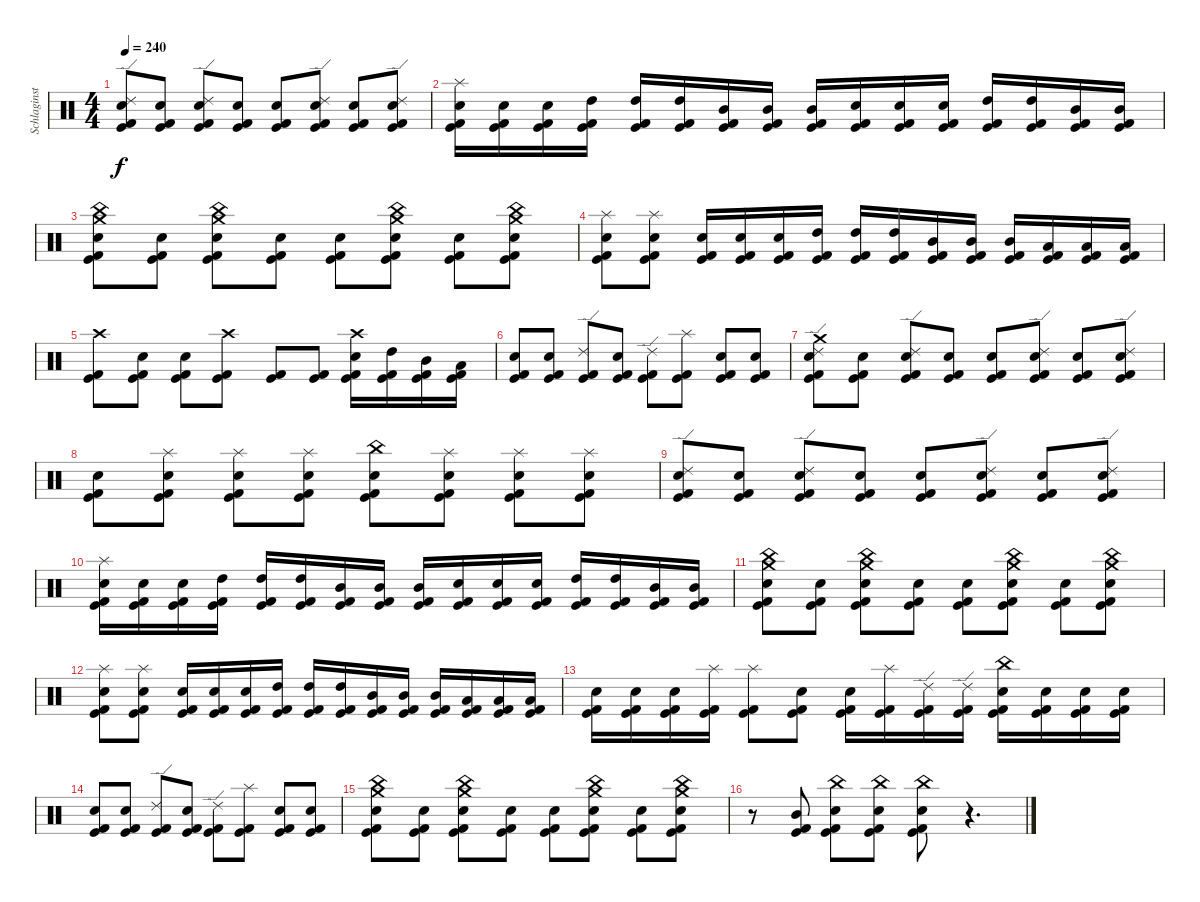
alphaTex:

\track ("Schlaginstrumente - Auswahl" "Schlaginst") {instrument percussion}
\staff {score}
\articulation defaults
\ts (4 4)
\tempo 240
\clef neutral
\ks c
("Ride (edge) 2" "Electric Snare (hit)" "Kick (hit)" "Kick (hit) 2").8{dy f} ("Electric Snare (hit)" "Kick (hit)" "Kick (hit) 2").8 ("Ride (edge) 2" "Electric Snare (hit)" "Kick (hit)" "Kick (hit) 2").8 ("Electric Snare (hit)" "Kick (hit)" "Kick (hit) 2").8 ("Electric Snare (hit)" "Kick (hit)" "Kick (hit) 2").8 ("Ride (edge) 2" "Electric Snare (hit)" "Kick (hit)" "Kick (hit) 2").8 ("Electric Snare (hit)" "Kick (hit)" "Kick (hit) 2").8 ("Ride (edge) 2" "Electric Snare (hit)" "Kick (hit)" "Kick (hit) 2").8 |
("Splash (hit)" "Electric Snare (hit)" "Kick (hit)" "Kick (hit) 2").16 ("Electric Snare (hit)" "Kick (hit)" "Kick (hit) 2").16 ("Electric Snare (hit)" "Kick (hit)" "Kick (hit) 2").16 ("High Tom (hit)" "Kick (hit)" "Kick (hit) 2").16 ("High Tom (hit)" "Kick (hit)" "Kick (hit) 2").16 ("High Tom (hit)" "Kick (hit)" "Kick (hit) 2").16 ("Mid Tom (hit)" "Kick (hit)" "Kick (hit) 2").16 ("Mid Tom (hit)" "Kick (hit)" "Kick (hit) 2").16 ("Mid Tom (hit)" "Kick (hit)" "Kick (hit) 2").16 ("Electric Snare (hit)" "Kick (hit)" "Kick (hit) 2").16 ("Electric Snare (hit)" "Kick (hit)" "Kick (hit) 2").16 ("Electric Snare (hit)" "Kick (hit)" "Kick (hit) 2").16 ("High Tom (hit)" "Kick (hit)" "Kick (hit) 2").16 ("High Tom (hit)" "Kick (hit)" "Kick (hit) 2").16 ("Mid Tom (hit)" "Kick (hit)" "Kick (hit) 2").16 ("Mid Tom (hit)" "Kick (hit)" "Kick (hit) 2").16 |
("Crash medium (hit)" "China (hit)" "Electric Snare (hit)" "Kick (hit)" "Kick (hit) 2").8 ("Electric Snare (hit)" "Kick (hit)" "Kick (hit) 2").8 ("Crash medium (hit)" "China (hit)" "Electric Snare (hit)" "Kick (hit)" "Kick (hit) 2").8 ("Electric Snare (hit)" "Kick (hit)" "Kick (hit) 2").8 ("Electric Snare (hit)" "Kick (hit)" "Kick (hit) 2").8 ("Crash medium (hit)" "China (hit)" "Electric Snare (hit)" "Kick (hit)" "Kick (hit) 2").8 ("Electric Snare (hit)" "Kick (hit)" "Kick (hit) 2").8 ("Crash medium (hit)" "China (hit)" "Electric Snare (hit)" "Kick (hit)" "Kick (hit) 2").8 |
("Splash (hit)" "Electric Snare (hit)" "Kick (hit)" "Kick (hit) 2").8 ("Splash (hit)" "Electric Snare (hit)" "Kick (hit)" "Kick (hit) 2").8 ("Electric Snare (hit)" "Kick (hit)" "Kick (hit) 2").16 ("Electric Snare (hit)" "Kick (hit)" "Kick (hit) 2").16 ("Electric Snare (hit)" "Kick (hit)" "Kick (hit) 2").16 ("High Tom (hit)" "Kick (hit)" "Kick (hit) 2").16 ("High Tom (hit)" "Kick (hit)" "Kick (hit) 2").16 ("High Tom (hit)" "Kick (hit)" "Kick (hit) 2").16 ("Mid Tom (hit)" "Kick (hit)" "Kick (hit) 2").16 ("Mid Tom (hit)" "Kick (hit)" "Kick (hit) 2").16 ("Mid Tom (hit)" "Kick (hit)" "Kick (hit) 2").16 ("Low Tom (hit)" "Kick (hit)" "Kick (hit) 2").16 ("Low Tom (hit)" "Kick (hit)" "Kick (hit) 2").16 ("Low Tom (hit)" "Kick (hit)" "Kick (hit) 2").16 |
("Crash high (hit)" "Kick (hit)" "Kick (hit) 2").8 ("Electric Snare (hit)" "Kick (hit)" "Kick (hit) 2").8 ("Electric Snare (hit)" "Kick (hit)" "Kick (hit) 2").8 ("Crash high (hit)" "Kick (hit)" "Kick (hit) 2").8 ("Kick (hit)" "Kick (hit) 2").8 ("Kick (hit)" "Kick (hit) 2").8 ("Crash high (hit)" "Electric Snare (hit)" "Kick (hit)" "Kick (hit) 2").16 ("High Tom (hit)" "Kick (hit)" "Kick (hit) 2").16 ("Mid Tom (hit)" "Kick (hit)" "Kick (hit) 2").16 ("Low Tom (hit)" "Kick (hit)" "Kick (hit) 2").16 |
("Electric Snare (hit)" "Kick (hit)" "Kick (hit) 2").8 ("Electric Snare (hit)" "Kick (hit)" "Kick (hit) 2").8 ("Ride (edge) 2" "Kick (hit)" "Kick (hit) 2").8 ("Electric Snare (hit)" "Kick (hit)" "Kick (hit) 2").8 ("Ride (edge) 2" "Kick (hit)" "Kick (hit) 2").8 ("Splash (hit)" "Kick (hit)" "Kick (hit) 2").8 ("Electric Snare (hit)" "Kick (hit)" "Kick (hit) 2").8 ("Electric Snare (hit)" "Kick (hit)" "Kick (hit) 2").8 |
("Crash medium (hit)" "Ride (edge) 2" "Electric Snare (hit)" "Kick (hit)" "Kick (hit) 2").8 ("Electric Snare (hit)" "Kick (hit)" "Kick (hit) 2").8 ("Ride (edge) 2" "Electric Snare (hit)" "Kick (hit)" "Kick (hit) 2").8 ("Electric Snare (hit)" "Kick (hit)" "Kick (hit) 2").8 ("Electric Snare (hit)" "Kick (hit)" "Kick (hit) 2").8 ("Ride (edge) 2" "Electric Snare (hit)" "Kick (hit)" "Kick (hit) 2").8 ("Electric Snare (hit)" "Kick (hit)" "Kick (hit) 2").8 ("Ride (edge) 2" "Electric Snare (hit)" "Kick (hit)" "Kick (hit) 2").8 |
("Electric Snare (hit)" "Kick (hit)" "Kick (hit) 2").8 ("Splash (hit)" "Electric Snare (hit)" "Kick (hit)" "Kick (hit) 2").8 ("Splash (hit)" "Electric Snare (hit)" "Kick (hit)" "Kick (hit) 2").8 ("Splash (hit)" "Electric Snare (hit)" "Kick (hit)" "Kick (hit) 2").8 ("China (hit)" "Electric Snare (hit)" "Kick (hit)" "Kick (hit) 2").8 ("Splash (hit)" "Electric Snare (hit)" "Kick (hit)" "Kick (hit) 2").8 ("Splash (hit)" "Electric Snare (hit)" "Kick (hit)" "Kick (hit) 2").8 ("Splash (hit)" "Electric Snare (hit)" "Kick (hit)" "Kick (hit) 2").8 |
("Ride (edge) 2" "Electric Snare (hit)" "Kick (hit)" "Kick (hit) 2").8 ("Electric Snare (hit)" "Kick (hit)" "Kick (hit) 2").8 ("Ride (edge) 2" "Electric Snare (hit)" "Kick (hit)" "Kick (hit) 2").8 ("Electric Snare (hit)" "Kick (hit)" "Kick (hit) 2").8 ("Electric Snare (hit)" "Kick (hit)" "Kick (hit) 2").8 ("Ride (edge) 2" "Electric Snare (hit)" "Kick (hit)" "Kick (hit) 2").8 ("Electric Snare (hit)" "Kick (hit)" "Kick (hit) 2").8 ("Ride (edge) 2" "Electric Snare (hit)" "Kick (hit)" "Kick (hit) 2").8 |
("Splash (hit)" "Electric Snare (hit)" "Kick (hit)" "Kick (hit) 2").16 ("Electric Snare (hit)" "Kick (hit)" "Kick (hit) 2").16 ("Electric Snare (hit)" "Kick (hit)" "Kick (hit) 2").16 ("High Tom (hit)" "Kick (hit)" "Kick (hit) 2").16 ("High Tom (hit)" "Kick (hit)" "Kick (hit) 2").16 ("High Tom (hit)" "Kick (hit)" "Kick (hit) 2").16 ("Mid Tom (hit)" "Kick (hit)" "Kick (hit) 2").16 ("Mid Tom (hit)" "Kick (hit)" "Kick (hit) 2").16 ("Mid Tom (hit)" "Kick (hit)" "Kick (hit) 2").16 ("Electric Snare (hit)" "Kick (hit)" "Kick (hit) 2").16 ("Electric Snare (hit)" "Kick (hit)" "Kick (hit) 2").16 ("Electric Snare (hit)" "Kick (hit)" "Kick (hit) 2").16 ("High Tom (hit)" "Kick (hit)" "Kick (hit) 2").16 ("High Tom (hit)" "Kick (hit)" "Kick (hit) 2").16 ("Mid Tom (hit)" "Kick (hit)" "Kick (hit) 2").16 ("Mid Tom (hit)" "Kick (hit)" "Kick (hit) 2").16 |
("Crash medium (hit)" "China (hit)" "Electric Snare (hit)" "Kick (hit)" "Kick (hit) 2").8 ("Electric Snare (hit)" "Kick (hit)" "Kick (hit) 2").8 ("Crash medium (hit)" "China (hit)" "Electric Snare (hit)" "Kick (hit)" "Kick (hit) 2").8 ("Electric Snare (hit)" "Kick (hit)" "Kick (hit) 2").8 ("Electric Snare (hit)" "Kick (hit)" "Kick (hit) 2").8 ("Crash medium (hit)" "China (hit)" "Electric Snare (hit)" "Kick (hit)" "Kick (hit) 2").8 ("Electric Snare (hit)" "Kick (hit)" "Kick (hit) 2").8 ("Crash medium (hit)" "China (hit)" "Electric Snare (hit)" "Kick (hit)" "Kick (hit) 2").8 |
("Splash (hit)" "Electric Snare (hit)" "Kick (hit)" "Kick (hit) 2").8 ("Splash (hit)" "Electric Snare (hit)" "Kick (hit)" "Kick (hit) 2").8 ("Electric Snare (hit)" "Kick (hit)" "Kick (hit) 2").16 ("Electric Snare (hit)" "Kick (hit)" "Kick (hit) 2").16 ("Electric Snare (hit)" "Kick (hit)" "Kick (hit) 2").16 ("High Tom (hit)" "Kick (hit)" "Kick (hit) 2").16 ("High Tom (hit)" "Kick (hit)" "Kick (hit) 2").16 ("High Tom (hit)" "Kick (hit)" "Kick (hit) 2").16 ("Mid Tom (hit)" "Kick (hit)" "Kick (hit) 2").16 ("Mid Tom (hit)" "Kick (hit)" "Kick (hit) 2").16 ("Mid Tom (hit)" "Kick (hit)" "Kick (hit) 2").16 ("Low Tom (hit)" "Kick (hit)" "Kick (hit) 2").16 ("Low Tom (hit)" "Kick (hit)" "Kick (hit) 2").16 ("Low Tom (hit)" "Kick (hit)" "Kick (hit) 2").16 |
("Electric Snare (hit)" "Kick (hit)" "Kick (hit) 2").16 ("Electric Snare (hit)" "Kick (hit)" "Kick (hit) 2").16 ("Electric Snare (hit)" "Kick (hit)" "Kick (hit) 2").16 ("Splash (hit)" "Kick (hit)" "Kick (hit) 2").16 ("Splash (hit)" "Kick (hit)" "Kick (hit) 2").8 ("Electric Snare (hit)" "Kick (hit)" "Kick (hit) 2").8 ("Electric Snare (hit)" "Kick (hit)" "Kick (hit) 2").16 ("Splash (hit)" "Kick (hit)" "Kick (hit) 2").16 ("Ride (edge) 2" "Kick (hit)" "Kick (hit) 2").16 ("Ride (edge) 2" "Kick (hit)" "Kick (hit) 2").16 ("China (hit)" "Electric Snare (hit)" "Kick (hit)" "Kick (hit) 2").16 ("Electric Snare (hit)" "Kick (hit)" "Kick (hit) 2").16 ("Electric Snare (hit)" "Kick (hit)" "Kick (hit) 2").16 ("Electric Snare (hit)" "Kick (hit)" "Kick (hit) 2").16 |
("Electric Snare (hit)" "Kick (hit)" "Kick (hit) 2").8 ("Electric Snare (hit)" "Kick (hit)" "Kick (hit) 2").8 ("Ride (edge) 2" "Kick (hit)" "Kick (hit) 2").8 ("Electric Snare (hit)" "Kick (hit)" "Kick (hit) 2").8 ("Ride (edge) 2" "Kick (hit)" "Kick (hit) 2").8 ("Splash (hit)" "Kick (hit)" "Kick (hit) 2").8 ("Electric Snare (hit)" "Kick (hit)" "Kick (hit) 2").8 ("Electric Snare (hit)" "Kick (hit)" "Kick (hit) 2").8 |
("Crash medium (hit)" "China (hit)" "Electric Snare (hit)" "Kick (hit)" "Kick (hit) 2").8 ("Electric Snare (hit)" "Kick (hit)" "Kick (hit) 2").8 ("Crash medium (hit)" "China (hit)" "Electric Snare (hit)" "Kick (hit)" "Kick (hit) 2").8 ("Electric Snare (hit)" "Kick (hit)" "Kick (hit) 2").8 ("Electric Snare (hit)" "Kick (hit)" "Kick (hit) 2").8 ("Crash medium (hit)" "China (hit)" "Electric Snare (hit)" "Kick (hit)" "Kick (hit) 2").8 ("Electric Snare (hit)" "Kick (hit)" "Kick (hit) 2").8 ("Crash medium (hit)" "China (hit)" "Electric Snare (hit)" "Kick (hit)" "Kick (hit) 2").8 |
r.8 ("Mid Tom (hit)" "Kick (hit)" "Kick (hit) 2").8 ("China (hit)" "Electric Snare (hit)" "Kick (hit)" "Kick (hit) 2").8 ("China (hit)" "Electric Snare (hit)" "Kick (hit)" "Kick (hit) 2").8 ("China (hit)" "Electric Snare (hit)" "Kick (hit)" "Kick (hit) 2").8 r.4{d}
